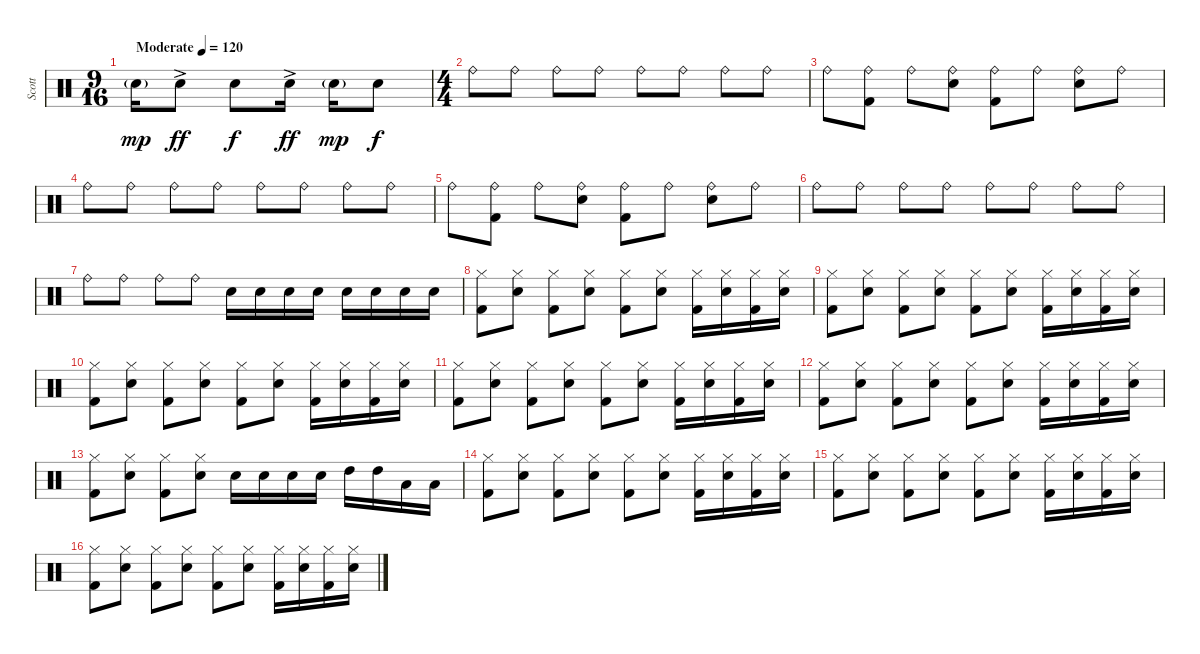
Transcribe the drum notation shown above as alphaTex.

\track ("Scott" "Scott") {instrument percussion}
\staff {score}
\articulation defaults
\ts (9 16)
\tempo (120 "Moderate")
\clef neutral
\ks c "Snare (hit) 2"{g}.16{dy mp} "Snare (hit) 2"{ac}.8{dy ff} "Snare (hit) 2".8{dy f} "Snare (hit) 2"{ac}.16{dy ff} "Snare (hit) 2"{g}.16{dy mp} "Snare (hit) 2".8{dy f}
|
\ts (4 4)
"Ride (bell)".8 "Ride (bell)".8 "Ride (bell)".8 "Ride (bell)".8 "Ride (bell)".8 "Ride (bell)".8 "Ride (bell)".8 "Ride (bell)".8 |
"Ride (bell)".8 ("Ride (bell)" "Kick (hit) 2").8 "Ride (bell)".8 ("Ride (bell)" "Snare (hit) 2").8 ("Ride (bell)" "Kick (hit) 2").8 "Ride (bell)".8 ("Ride (bell)" "Snare (hit) 2").8 "Ride (bell)".8 |
"Ride (bell)".8 "Ride (bell)".8 "Ride (bell)".8 "Ride (bell)".8 "Ride (bell)".8 "Ride (bell)".8 "Ride (bell)".8 "Ride (bell)".8 |
"Ride (bell)".8 ("Ride (bell)" "Kick (hit) 2").8 "Ride (bell)".8 ("Ride (bell)" "Snare (hit) 2").8 ("Ride (bell)" "Kick (hit) 2").8 "Ride (bell)".8 ("Ride (bell)" "Snare (hit) 2").8 "Ride (bell)".8 |
"Ride (bell)".8 "Ride (bell)".8 "Ride (bell)".8 "Ride (bell)".8 "Ride (bell)".8 "Ride (bell)".8 "Ride (bell)".8 "Ride (bell)".8 |
"Ride (bell)".8 "Ride (bell)".8 "Ride (bell)".8 "Ride (bell)".8 "Snare (hit) 2".16 "Snare (hit) 2".16 "Snare (hit) 2".16 "Snare (hit) 2".16 "Snare (hit) 2".16 "Snare (hit) 2".16 "Snare (hit) 2".16 "Snare (hit) 2".16 |
("Hi-Hat (closed)" "Kick (hit) 2").8 ("Hi-Hat (closed)" "Snare (hit) 2").8 ("Hi-Hat (closed)" "Kick (hit) 2").8 ("Hi-Hat (closed)" "Snare (hit) 2").8 ("Hi-Hat (closed)" "Kick (hit) 2").8 ("Hi-Hat (closed)" "Snare (hit) 2").8 ("Hi-Hat (closed)" "Kick (hit) 2").16 ("Hi-Hat (closed)" "Snare (hit) 2").16 ("Hi-Hat (closed)" "Kick (hit) 2").16 ("Hi-Hat (closed)" "Snare (hit) 2").16 |
("Hi-Hat (closed)" "Kick (hit) 2").8 ("Hi-Hat (closed)" "Snare (hit) 2").8 ("Hi-Hat (closed)" "Kick (hit) 2").8 ("Hi-Hat (closed)" "Snare (hit) 2").8 ("Hi-Hat (closed)" "Kick (hit) 2").8 ("Hi-Hat (closed)" "Snare (hit) 2").8 ("Hi-Hat (closed)" "Kick (hit) 2").16 ("Hi-Hat (closed)" "Snare (hit) 2").16 ("Hi-Hat (closed)" "Kick (hit) 2").16 ("Hi-Hat (closed)" "Snare (hit) 2").16 |
("Hi-Hat (closed)" "Kick (hit) 2").8 ("Hi-Hat (closed)" "Snare (hit) 2").8 ("Hi-Hat (closed)" "Kick (hit) 2").8 ("Hi-Hat (closed)" "Snare (hit) 2").8 ("Hi-Hat (closed)" "Kick (hit) 2").8 ("Hi-Hat (closed)" "Snare (hit) 2").8 ("Hi-Hat (closed)" "Kick (hit) 2").16 ("Hi-Hat (closed)" "Snare (hit) 2").16 ("Hi-Hat (closed)" "Kick (hit) 2").16 ("Hi-Hat (closed)" "Snare (hit) 2").16 |
("Hi-Hat (closed)" "Kick (hit) 2").8 ("Hi-Hat (closed)" "Snare (hit) 2").8 ("Hi-Hat (closed)" "Kick (hit) 2").8 ("Hi-Hat (closed)" "Snare (hit) 2").8 ("Hi-Hat (closed)" "Kick (hit) 2").8 ("Hi-Hat (closed)" "Snare (hit) 2").8 ("Hi-Hat (closed)" "Kick (hit) 2").16 ("Hi-Hat (closed)" "Snare (hit) 2").16 ("Hi-Hat (closed)" "Kick (hit) 2").16 ("Hi-Hat (closed)" "Snare (hit) 2").16 |
("Hi-Hat (closed)" "Kick (hit) 2").8 ("Hi-Hat (closed)" "Snare (hit) 2").8 ("Hi-Hat (closed)" "Kick (hit) 2").8 ("Hi-Hat (closed)" "Snare (hit) 2").8 ("Hi-Hat (closed)" "Kick (hit) 2").8 ("Hi-Hat (closed)" "Snare (hit) 2").8 ("Hi-Hat (closed)" "Kick (hit) 2").16 ("Hi-Hat (closed)" "Snare (hit) 2").16 ("Hi-Hat (closed)" "Kick (hit) 2").16 ("Hi-Hat (closed)" "Snare (hit) 2").16 |
("Hi-Hat (closed)" "Kick (hit) 2").8 ("Hi-Hat (closed)" "Snare (hit) 2").8 ("Hi-Hat (closed)" "Kick (hit) 2").8 ("Hi-Hat (closed)" "Snare (hit) 2").8 "Snare (hit) 2".16 "Snare (hit) 2".16 "Snare (hit) 2".16 "Snare (hit) 2".16 "High Tom (hit)".16 "High Tom (hit)".16 "Low Tom (hit)".16 "Low Tom (hit)".16 |
("Hi-Hat (closed)" "Kick (hit) 2").8 ("Hi-Hat (closed)" "Snare (hit) 2").8 ("Hi-Hat (closed)" "Kick (hit) 2").8 ("Hi-Hat (closed)" "Snare (hit) 2").8 ("Hi-Hat (closed)" "Kick (hit) 2").8 ("Hi-Hat (closed)" "Snare (hit) 2").8 ("Hi-Hat (closed)" "Kick (hit) 2").16 ("Hi-Hat (closed)" "Snare (hit) 2").16 ("Hi-Hat (closed)" "Kick (hit) 2").16 ("Hi-Hat (closed)" "Snare (hit) 2").16 |
("Hi-Hat (closed)" "Kick (hit) 2").8 ("Hi-Hat (closed)" "Snare (hit) 2").8 ("Hi-Hat (closed)" "Kick (hit) 2").8 ("Hi-Hat (closed)" "Snare (hit) 2").8 ("Hi-Hat (closed)" "Kick (hit) 2").8 ("Hi-Hat (closed)" "Snare (hit) 2").8 ("Hi-Hat (closed)" "Kick (hit) 2").16 ("Hi-Hat (closed)" "Snare (hit) 2").16 ("Hi-Hat (closed)" "Kick (hit) 2").16 ("Hi-Hat (closed)" "Snare (hit) 2").16 |
("Hi-Hat (closed)" "Kick (hit) 2").8 ("Hi-Hat (closed)" "Snare (hit) 2").8 ("Hi-Hat (closed)" "Kick (hit) 2").8 ("Hi-Hat (closed)" "Snare (hit) 2").8 ("Hi-Hat (closed)" "Kick (hit) 2").8 ("Hi-Hat (closed)" "Snare (hit) 2").8 ("Hi-Hat (closed)" "Kick (hit) 2").16 ("Hi-Hat (closed)" "Snare (hit) 2").16 ("Hi-Hat (closed)" "Kick (hit) 2").16 ("Hi-Hat (closed)" "Snare (hit) 2").16
